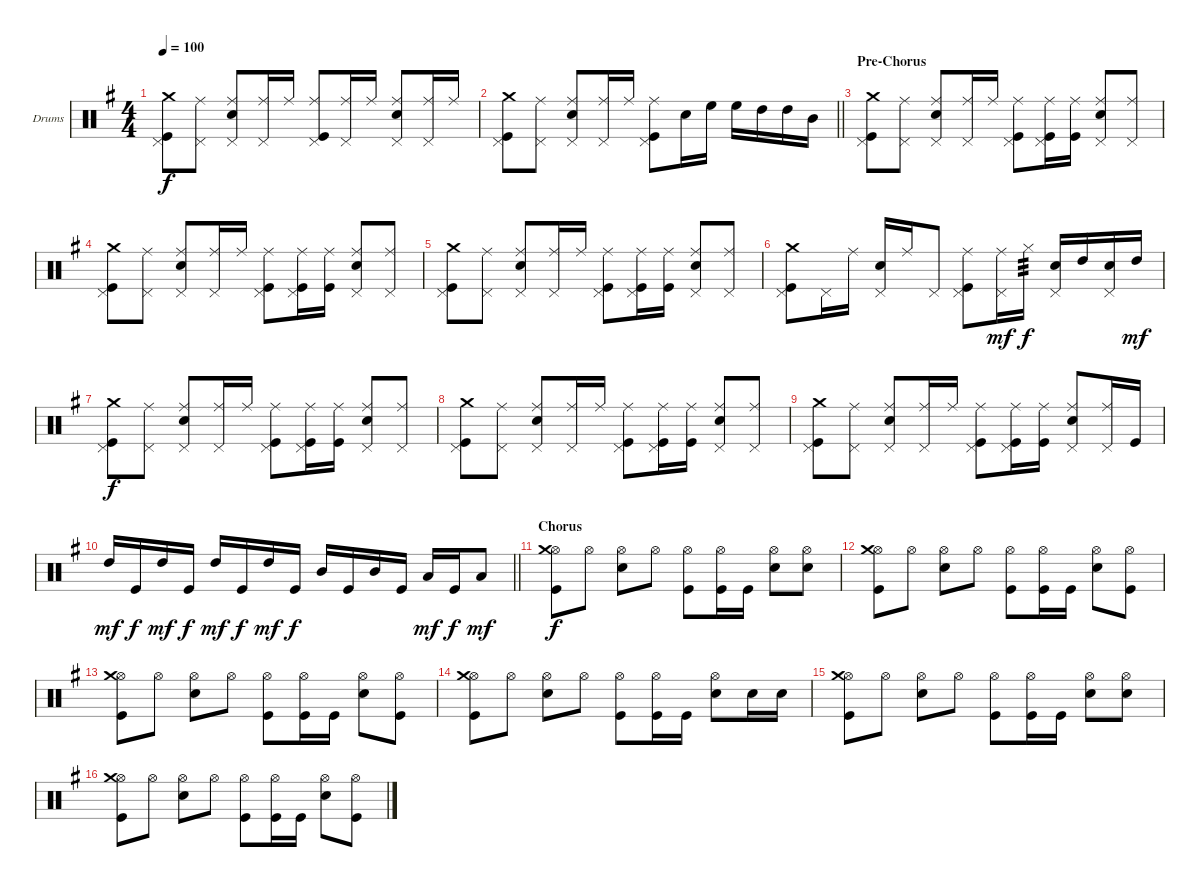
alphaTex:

\bracketExtendMode groupsimilarinstruments
\firstSystemTrackNameOrientation horizontal
\otherSystemsTrackNameOrientation horizontal
\track ("Барабаны" "Drums") {instrument percussion}
\staff {score}
\articulation defaults
\ts (4 4)
\beaming (8 2 2 2 2)
\tempo 100
\clef neutral
\ks eminor
("Crash medium (hit)" "Kick (hit)" "Pedal Hi-Hat (hit)").8{dy f} ("Pedal Hi-Hat (hit)" "Ride (middle)").8 ("Ride (middle)" "Snare (hit) 2" "Pedal Hi-Hat (hit)").8 ("Ride (middle)" "Pedal Hi-Hat (hit)").16 "Ride (middle)".16 ("Ride (middle)" "Kick (hit)" "Pedal Hi-Hat (hit)").8 ("Ride (middle)" "Pedal Hi-Hat (hit)").16 "Ride (middle)".16 ("Ride (middle)" "Snare (hit) 2" "Pedal Hi-Hat (hit)").8 ("Ride (middle)" "Pedal Hi-Hat (hit)").16 "Ride (middle)".16 |
\barLineRight lightlight
("Crash medium (hit)" "Kick (hit)" "Pedal Hi-Hat (hit)").8 ("Pedal Hi-Hat (hit)" "Ride (middle)").8 ("Ride (middle)" "Snare (hit) 2" "Pedal Hi-Hat (hit)").8 ("Ride (middle)" "Pedal Hi-Hat (hit)").16 "Ride (middle)".16 ("Ride (middle)" "Kick (hit)" "Pedal Hi-Hat (hit)").8 "Snare (hit) 2".16 "High Floor Tom (hit)".16 "High Floor Tom (hit)".16 "High Tom (hit)".16 "High Tom (hit)".16 "Mid Tom (hit)".16 |
\section ("" "Pre-Chorus")
("Crash medium (hit)" "Kick (hit)" "Pedal Hi-Hat (hit)").8 ("Pedal Hi-Hat (hit)" "Ride (middle)").8 ("Ride (middle)" "Snare (hit) 2" "Pedal Hi-Hat (hit)").8 ("Ride (middle)" "Pedal Hi-Hat (hit)").16 "Ride (middle)".16 ("Ride (middle)" "Kick (hit)" "Pedal Hi-Hat (hit)").8 ("Ride (middle)" "Pedal Hi-Hat (hit)" "Kick (hit)").16 ("Ride (middle)" "Kick (hit)").16 ("Ride (middle)" "Snare (hit) 2" "Pedal Hi-Hat (hit)").8 ("Ride (middle)" "Pedal Hi-Hat (hit)").8 |
("Crash medium (hit)" "Kick (hit)" "Pedal Hi-Hat (hit)").8 ("Pedal Hi-Hat (hit)" "Ride (middle)").8 ("Ride (middle)" "Snare (hit) 2" "Pedal Hi-Hat (hit)").8 ("Ride (middle)" "Pedal Hi-Hat (hit)").16 "Ride (middle)".16 ("Ride (middle)" "Kick (hit)" "Pedal Hi-Hat (hit)").8 ("Ride (middle)" "Pedal Hi-Hat (hit)" "Kick (hit)").16 ("Ride (middle)" "Kick (hit)").16 ("Ride (middle)" "Snare (hit) 2" "Pedal Hi-Hat (hit)").8 ("Ride (middle)" "Pedal Hi-Hat (hit)").8 |
("Crash medium (hit)" "Kick (hit)" "Pedal Hi-Hat (hit)").8 ("Pedal Hi-Hat (hit)" "Ride (middle)").8 ("Ride (middle)" "Snare (hit) 2" "Pedal Hi-Hat (hit)").8 ("Ride (middle)" "Pedal Hi-Hat (hit)").16 "Ride (middle)".16 ("Ride (middle)" "Kick (hit)" "Pedal Hi-Hat (hit)").8 ("Ride (middle)" "Pedal Hi-Hat (hit)" "Kick (hit)").16 ("Ride (middle)" "Kick (hit)").16 ("Ride (middle)" "Snare (hit) 2" "Pedal Hi-Hat (hit)").8 ("Ride (middle)" "Pedal Hi-Hat (hit)").8 |
("Crash medium (hit)" "Kick (hit)" "Pedal Hi-Hat (hit)").8 "Pedal Hi-Hat (hit)".16 "Ride (middle)".16 ("Snare (hit) 2" "Pedal Hi-Hat (hit)").16 "Ride (middle)".16 "Pedal Hi-Hat (hit)".8 ("Ride (middle)" "Kick (hit)" "Pedal Hi-Hat (hit)").8 ("Pedal Hi-Hat (hit)" "Ride (middle)").16{dy mf} "Hi-Hat (closed)".16{tp 3 dy f} ("Snare (hit) 2" "Pedal Hi-Hat (hit)").16 "High Tom (hit)".16 ("Snare (hit) 2" "Pedal Hi-Hat (hit)").16 "High Tom (hit)".16{dy mf} |
("Crash medium (hit)" "Kick (hit)" "Pedal Hi-Hat (hit)").8{dy f} ("Pedal Hi-Hat (hit)" "Ride (middle)").8 ("Ride (middle)" "Snare (hit) 2" "Pedal Hi-Hat (hit)").8 ("Ride (middle)" "Pedal Hi-Hat (hit)").16 "Ride (middle)".16 ("Ride (middle)" "Kick (hit)" "Pedal Hi-Hat (hit)").8 ("Ride (middle)" "Pedal Hi-Hat (hit)" "Kick (hit)").16 ("Ride (middle)" "Kick (hit)").16 ("Ride (middle)" "Snare (hit) 2" "Pedal Hi-Hat (hit)").8 ("Ride (middle)" "Pedal Hi-Hat (hit)").8 |
("Crash medium (hit)" "Kick (hit)" "Pedal Hi-Hat (hit)").8 ("Pedal Hi-Hat (hit)" "Ride (middle)").8 ("Ride (middle)" "Snare (hit) 2" "Pedal Hi-Hat (hit)").8 ("Ride (middle)" "Pedal Hi-Hat (hit)").16 "Ride (middle)".16 ("Ride (middle)" "Kick (hit)" "Pedal Hi-Hat (hit)").8 ("Ride (middle)" "Pedal Hi-Hat (hit)" "Kick (hit)").16 ("Ride (middle)" "Kick (hit)").16 ("Ride (middle)" "Snare (hit) 2" "Pedal Hi-Hat (hit)").8 ("Ride (middle)" "Pedal Hi-Hat (hit)").8 |
("Crash medium (hit)" "Kick (hit)" "Pedal Hi-Hat (hit)").8 ("Pedal Hi-Hat (hit)" "Ride (middle)").8 ("Ride (middle)" "Snare (hit) 2" "Pedal Hi-Hat (hit)").8 ("Ride (middle)" "Pedal Hi-Hat (hit)").16 "Ride (middle)".16 ("Ride (middle)" "Kick (hit)" "Pedal Hi-Hat (hit)").8 ("Ride (middle)" "Pedal Hi-Hat (hit)" "Kick (hit)").16 ("Ride (middle)" "Kick (hit)").16 ("Ride (middle)" "Snare (hit) 2" "Pedal Hi-Hat (hit)").8 ("Ride (middle)" "Pedal Hi-Hat (hit)").16 "Kick (hit)".16 |
\barLineRight lightlight "High Tom (hit)".16{dy mf} "Kick (hit)".16{dy f} "High Tom (hit)".16{dy mf} "Kick (hit)".16{dy f} "High Tom (hit)".16{dy mf} "Kick (hit)".16{dy f} "High Tom (hit)".16{dy mf} "Kick (hit)".16{dy f} "Mid Tom (hit)".16 "Kick (hit)".16 "Mid Tom (hit)".16 "Kick (hit)".16 "Low Tom (hit)".16{dy mf} "Kick (hit)".16{dy f} "Low Tom (hit)".8{dy mf}
|
\section ("" "Chorus")
("Hi-Hat (open)" "Crash medium (hit)" "Kick (hit)").8{dy f} "Hi-Hat (open)".8 ("Hi-Hat (open)" "Snare (hit) 2").8 "Hi-Hat (open)".8 ("Hi-Hat (open)" "Kick (hit)").8 ("Hi-Hat (open)" "Kick (hit)").16 "Kick (hit)".16 ("Hi-Hat (open)" "Snare (hit) 2").8 ("Hi-Hat (open)" "Snare (hit) 2").8 |
("Hi-Hat (open)" "Crash medium (hit)" "Kick (hit)").8 "Hi-Hat (open)".8 ("Hi-Hat (open)" "Snare (hit) 2").8 "Hi-Hat (open)".8 ("Hi-Hat (open)" "Kick (hit)").8 ("Hi-Hat (open)" "Kick (hit)").16 "Kick (hit)".16 ("Hi-Hat (open)" "Snare (hit) 2").8 ("Hi-Hat (open)" "Kick (hit)").8 |
("Hi-Hat (open)" "Crash medium (hit)" "Kick (hit)").8 "Hi-Hat (open)".8 ("Hi-Hat (open)" "Snare (hit) 2").8 "Hi-Hat (open)".8 ("Hi-Hat (open)" "Kick (hit)").8 ("Hi-Hat (open)" "Kick (hit)").16 "Kick (hit)".16 ("Hi-Hat (open)" "Snare (hit) 2").8 ("Hi-Hat (open)" "Kick (hit)").8 |
("Hi-Hat (open)" "Crash medium (hit)" "Kick (hit)").8 "Hi-Hat (open)".8 ("Hi-Hat (open)" "Snare (hit) 2").8 "Hi-Hat (open)".8 ("Hi-Hat (open)" "Kick (hit)").8 ("Hi-Hat (open)" "Kick (hit)").16 "Kick (hit)".16 ("Hi-Hat (open)" "Snare (hit) 2").8 "Snare (hit) 2".16 "Snare (hit) 2".16 |
("Hi-Hat (open)" "Crash medium (hit)" "Kick (hit)").8 "Hi-Hat (open)".8 ("Hi-Hat (open)" "Snare (hit) 2").8 "Hi-Hat (open)".8 ("Hi-Hat (open)" "Kick (hit)").8 ("Hi-Hat (open)" "Kick (hit)").16 "Kick (hit)".16 ("Hi-Hat (open)" "Snare (hit) 2").8 ("Hi-Hat (open)" "Snare (hit) 2").8 |
("Hi-Hat (open)" "Crash medium (hit)" "Kick (hit)").8 "Hi-Hat (open)".8 ("Hi-Hat (open)" "Snare (hit) 2").8 "Hi-Hat (open)".8 ("Hi-Hat (open)" "Kick (hit)").8 ("Hi-Hat (open)" "Kick (hit)").16 "Kick (hit)".16 ("Hi-Hat (open)" "Snare (hit) 2").8 ("Hi-Hat (open)" "Kick (hit)").8
